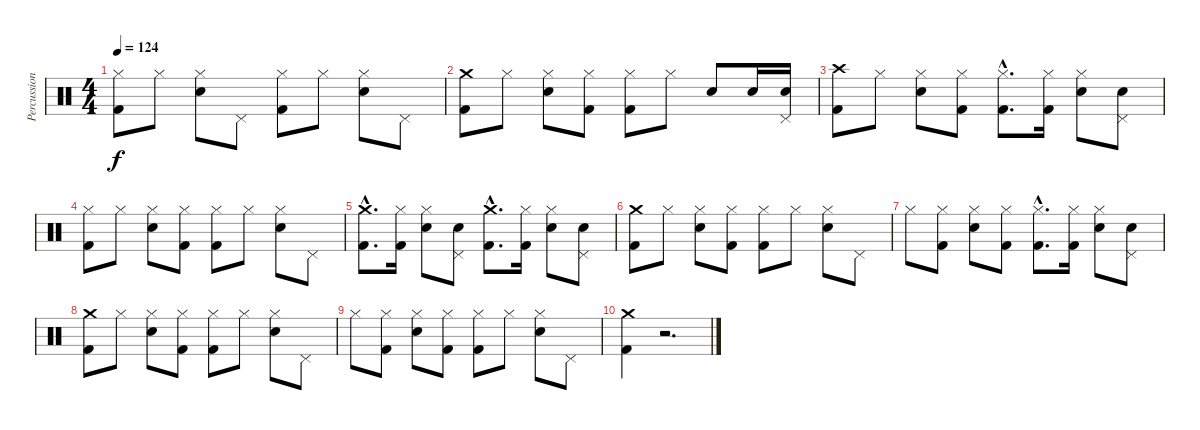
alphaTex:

\track ("Percussions" "Percussion") {instrument percussion}
\staff {score}
\articulation defaults
\ts (4 4)
\tempo 124
\clef neutral
\ks c
("Hi-Hat (closed)" "Kick (hit) 2").8{dy f} "Hi-Hat (closed)".8 ("Hi-Hat (closed)" "Electric Snare (hit)").8 "Pedal Hi-Hat (hit)".8 ("Hi-Hat (closed)" "Kick (hit) 2").8 "Hi-Hat (closed)".8 ("Hi-Hat (closed)" "Electric Snare (hit)").8 "Pedal Hi-Hat (hit)".8 |
("Crash medium (hit)" "Kick (hit) 2").8 "Hi-Hat (closed)".8 ("Hi-Hat (closed)" "Electric Snare (hit)").8 ("Hi-Hat (closed)" "Kick (hit) 2").8 ("Hi-Hat (closed)" "Kick (hit) 2").8 "Hi-Hat (closed)".8 "Electric Snare (hit)".8 "Electric Snare (hit)".16 ("Pedal Hi-Hat (hit)" "Electric Snare (hit)").16 |
("Crash high (hit)" "Kick (hit) 2").8 "Hi-Hat (closed)".8 ("Hi-Hat (closed)" "Electric Snare (hit)").8 ("Hi-Hat (closed)" "Kick (hit) 2").8 ("Hi-Hat (closed)"{hac} "Kick (hit) 2"{hac}).8{d} ("Hi-Hat (closed)" "Kick (hit) 2").16 ("Hi-Hat (closed)" "Electric Snare (hit)").8 ("Pedal Hi-Hat (hit)" "Electric Snare (hit)").8 |
("Hi-Hat (closed)" "Kick (hit) 2").8 "Hi-Hat (closed)".8 ("Hi-Hat (closed)" "Electric Snare (hit)").8 ("Hi-Hat (closed)" "Kick (hit) 2").8 ("Hi-Hat (closed)" "Kick (hit) 2").8 "Hi-Hat (closed)".8 ("Hi-Hat (closed)" "Electric Snare (hit)").8 "Pedal Hi-Hat (hit)".8 |
("Crash medium (hit)"{hac} "Kick (hit) 2"{hac}).8{d} ("Hi-Hat (closed)" "Kick (hit) 2").16 ("Hi-Hat (closed)" "Electric Snare (hit)").8 ("Pedal Hi-Hat (hit)" "Electric Snare (hit)").8 ("Crash medium (hit)"{hac} "Kick (hit) 2"{hac}).8{d} ("Hi-Hat (closed)" "Kick (hit) 2").16 ("Hi-Hat (closed)" "Electric Snare (hit)").8 ("Pedal Hi-Hat (hit)" "Electric Snare (hit)").8 |
("Crash medium (hit)" "Kick (hit) 2").8 "Hi-Hat (closed)".8 ("Hi-Hat (closed)" "Electric Snare (hit)").8 ("Hi-Hat (closed)" "Kick (hit) 2").8 ("Hi-Hat (closed)" "Kick (hit) 2").8 "Hi-Hat (closed)".8 ("Hi-Hat (closed)" "Electric Snare (hit)").8 "Pedal Hi-Hat (hit)".8 |
"Hi-Hat (closed)".8 ("Hi-Hat (closed)" "Kick (hit) 2").8 ("Hi-Hat (closed)" "Electric Snare (hit)").8 ("Hi-Hat (closed)" "Kick (hit) 2").8 ("Hi-Hat (closed)"{hac} "Kick (hit) 2"{hac}).8{d} ("Hi-Hat (closed)" "Kick (hit) 2").16 ("Hi-Hat (closed)" "Electric Snare (hit)").8 ("Pedal Hi-Hat (hit)" "Electric Snare (hit)").8 |
("Crash medium (hit)" "Kick (hit) 2").8 "Hi-Hat (closed)".8 ("Hi-Hat (closed)" "Electric Snare (hit)").8 ("Hi-Hat (closed)" "Kick (hit) 2").8 ("Hi-Hat (closed)" "Kick (hit) 2").8 "Hi-Hat (closed)".8 ("Hi-Hat (closed)" "Electric Snare (hit)").8 "Pedal Hi-Hat (hit)".8 |
"Hi-Hat (closed)".8 ("Hi-Hat (closed)" "Kick (hit) 2").8 ("Hi-Hat (closed)" "Electric Snare (hit)").8 ("Hi-Hat (closed)" "Kick (hit) 2").8 ("Hi-Hat (closed)" "Kick (hit) 2").8 "Hi-Hat (closed)".8 ("Hi-Hat (closed)" "Electric Snare (hit)").8 "Pedal Hi-Hat (hit)".8 |
("Crash medium (hit)" "Kick (hit) 2").4 r.2{d}
